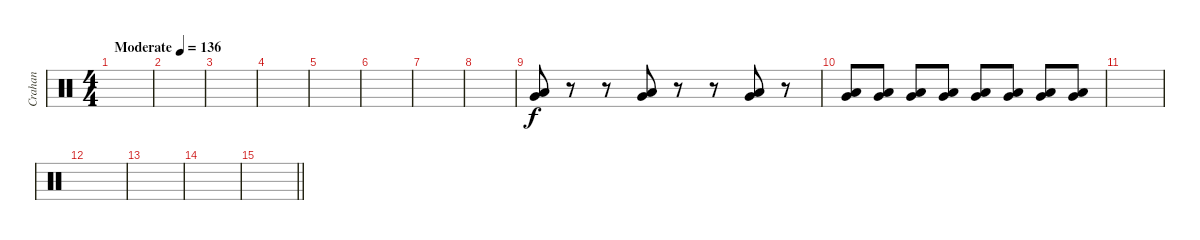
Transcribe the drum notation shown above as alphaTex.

\track ("Crahan" "Crahan") {instrument percussion}
\staff {score}
\articulation defaults
\ts (4 4)
\tempo (136 "Moderate")
\clef neutral
\ks c
|
|
|
|
|
|
|
|
("Very Low Tom (hit)" "Low Floor Tom (hit)").8 r.8 r.8 ("Very Low Tom (hit)" "Low Floor Tom (hit)").8 r.8 r.8 ("Very Low Tom (hit)" "Low Floor Tom (hit)").8 r.8 |
("Very Low Tom (hit)" "Low Floor Tom (hit)").8 ("Very Low Tom (hit)" "Low Floor Tom (hit)").8 ("Very Low Tom (hit)" "Low Floor Tom (hit)").8 ("Very Low Tom (hit)" "Low Floor Tom (hit)").8 ("Very Low Tom (hit)" "Low Floor Tom (hit)").8 ("Very Low Tom (hit)" "Low Floor Tom (hit)").8 ("Very Low Tom (hit)" "Low Floor Tom (hit)").8 ("Very Low Tom (hit)" "Low Floor Tom (hit)").8 |
|
|
|
|
\barLineRight lightlight
